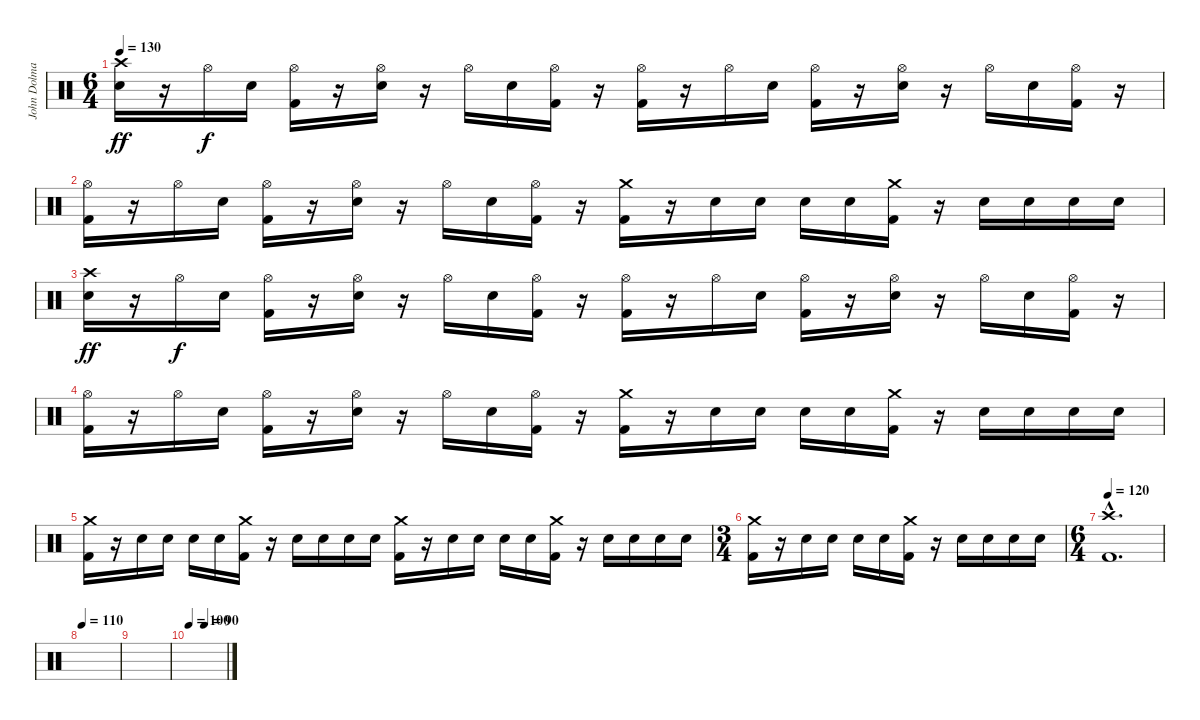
\track ("John Dolmayan" "John Dolma") {instrument percussion}
\staff {score}
\articulation defaults
\ts (6 4)
\tempo 130
\clef neutral
\ks c
("Crash high (hit)" "Electric Snare (hit)").16{dy ff} r.16 "Hi-Hat (open)".16{dy f} "Electric Snare (hit)".16 ("Hi-Hat (open)" "Kick (hit) 2").16 r.16 ("Hi-Hat (open)" "Electric Snare (hit)").16 r.16 "Hi-Hat (open)".16 "Electric Snare (hit)".16 ("Hi-Hat (open)" "Kick (hit) 2").16 r.16 ("Hi-Hat (open)" "Kick (hit) 2").16 r.16 "Hi-Hat (open)".16 "Electric Snare (hit)".16 ("Hi-Hat (open)" "Kick (hit) 2").16 r.16 ("Hi-Hat (open)" "Electric Snare (hit)").16 r.16 "Hi-Hat (open)".16 "Electric Snare (hit)".16 ("Hi-Hat (open)" "Kick (hit) 2").16 r.16 |
("Hi-Hat (open)" "Kick (hit) 2").16 r.16 "Hi-Hat (open)".16 "Electric Snare (hit)".16 ("Hi-Hat (open)" "Kick (hit) 2").16 r.16 ("Hi-Hat (open)" "Electric Snare (hit)").16 r.16 "Hi-Hat (open)".16 "Electric Snare (hit)".16 ("Hi-Hat (open)" "Kick (hit) 2").16 r.16 ("Crash medium (hit)" "Kick (hit) 2").16 r.16 "Electric Snare (hit)".16 "Electric Snare (hit)".16 "Electric Snare (hit)".16 "Electric Snare (hit)".16 ("Crash medium (hit)" "Kick (hit) 2").16 r.16 "Electric Snare (hit)".16 "Electric Snare (hit)".16 "Electric Snare (hit)".16 "Electric Snare (hit)".16 |
("Crash high (hit)" "Electric Snare (hit)").16{dy ff} r.16 "Hi-Hat (open)".16{dy f} "Electric Snare (hit)".16 ("Hi-Hat (open)" "Kick (hit) 2").16 r.16 ("Hi-Hat (open)" "Electric Snare (hit)").16 r.16 "Hi-Hat (open)".16 "Electric Snare (hit)".16 ("Hi-Hat (open)" "Kick (hit) 2").16 r.16 ("Hi-Hat (open)" "Kick (hit) 2").16 r.16 "Hi-Hat (open)".16 "Electric Snare (hit)".16 ("Hi-Hat (open)" "Kick (hit) 2").16 r.16 ("Hi-Hat (open)" "Electric Snare (hit)").16 r.16 "Hi-Hat (open)".16 "Electric Snare (hit)".16 ("Hi-Hat (open)" "Kick (hit) 2").16 r.16 |
("Hi-Hat (open)" "Kick (hit) 2").16 r.16 "Hi-Hat (open)".16 "Electric Snare (hit)".16 ("Hi-Hat (open)" "Kick (hit) 2").16 r.16 ("Hi-Hat (open)" "Electric Snare (hit)").16 r.16 "Hi-Hat (open)".16 "Electric Snare (hit)".16 ("Hi-Hat (open)" "Kick (hit) 2").16 r.16 ("Crash medium (hit)" "Kick (hit) 2").16 r.16 "Electric Snare (hit)".16 "Electric Snare (hit)".16 "Electric Snare (hit)".16 "Electric Snare (hit)".16 ("Crash medium (hit)" "Kick (hit) 2").16 r.16 "Electric Snare (hit)".16 "Electric Snare (hit)".16 "Electric Snare (hit)".16 "Electric Snare (hit)".16 |
("Crash medium (hit)" "Kick (hit) 2").16 r.16 "Electric Snare (hit)".16 "Electric Snare (hit)".16 "Electric Snare (hit)".16 "Electric Snare (hit)".16 ("Crash medium (hit)" "Kick (hit) 2").16 r.16 "Electric Snare (hit)".16 "Electric Snare (hit)".16 "Electric Snare (hit)".16 "Electric Snare (hit)".16 ("Crash medium (hit)" "Kick (hit) 2").16 r.16 "Electric Snare (hit)".16 "Electric Snare (hit)".16 "Electric Snare (hit)".16 "Electric Snare (hit)".16 ("Crash medium (hit)" "Kick (hit) 2").16 r.16 "Electric Snare (hit)".16 "Electric Snare (hit)".16 "Electric Snare (hit)".16 "Electric Snare (hit)".16 |
\ts (3 4)
("Crash medium (hit)" "Kick (hit) 2").16 r.16 "Electric Snare (hit)".16 "Electric Snare (hit)".16 "Electric Snare (hit)".16 "Electric Snare (hit)".16 ("Crash medium (hit)" "Kick (hit) 2").16 r.16 "Electric Snare (hit)".16 "Electric Snare (hit)".16 "Electric Snare (hit)".16 "Electric Snare (hit)".16 |
\ts (6 4)
\tempo 120
("Crash high (hit)"{hac} "Kick (hit) 2"{hac}).1{d} |
\tempo 110
|
|
\tempo 100
\tempo (90 0.4166666666666667)
